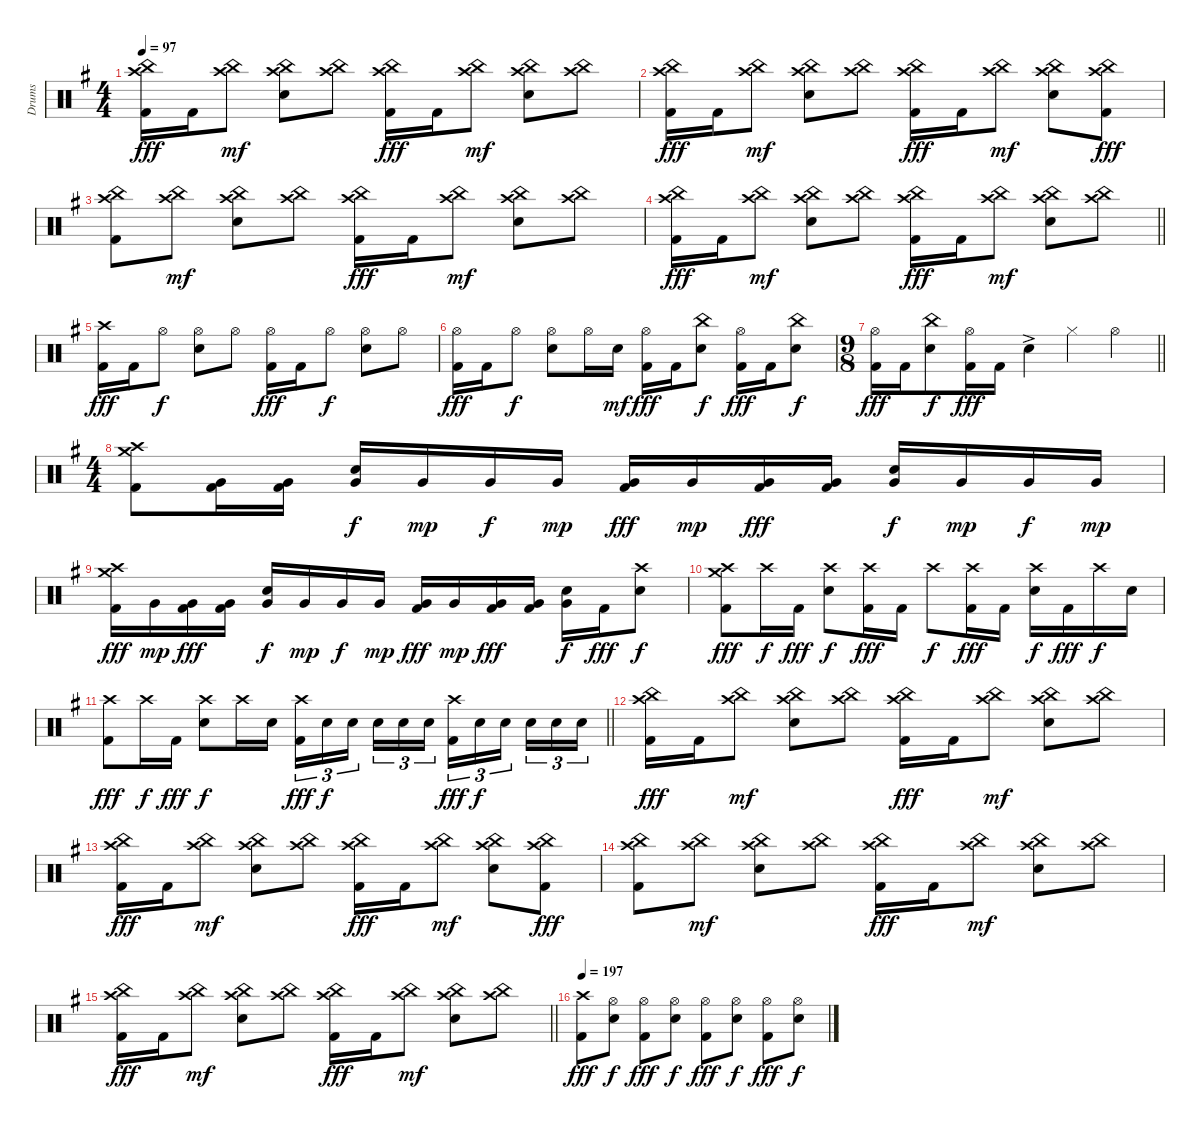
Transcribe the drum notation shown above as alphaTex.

\track ("Drums" "Drums") {instrument percussion}
\staff {score}
\articulation defaults
\ts (4 4)
\tempo 97
\clef neutral
\ks eminor
("Crash high (hit)" "China (hit)" "Kick (hit) 2").16{dy fff} "Kick (hit) 2".16 ("Crash high (hit)" "China (hit)").8{dy mf} ("Crash high (hit)" "China (hit)" "Snare (hit) 2").8 ("Crash high (hit)" "China (hit)").8 ("Crash high (hit)" "China (hit)" "Kick (hit) 2").16{dy fff} "Kick (hit) 2".16 ("Crash high (hit)" "China (hit)").8{dy mf} ("Crash high (hit)" "China (hit)" "Snare (hit) 2").8 ("Crash high (hit)" "China (hit)").8 |
("Crash high (hit)" "China (hit)" "Kick (hit) 2").16{dy fff} "Kick (hit) 2".16 ("Crash high (hit)" "China (hit)").8{dy mf} ("Crash high (hit)" "China (hit)" "Snare (hit) 2").8 ("Crash high (hit)" "China (hit)").8 ("Crash high (hit)" "China (hit)" "Kick (hit) 2").16{dy fff} "Kick (hit) 2".16 ("Crash high (hit)" "China (hit)").8{dy mf} ("Crash high (hit)" "China (hit)" "Snare (hit) 2").8 ("Crash high (hit)" "China (hit)" "Kick (hit) 2").8{dy fff} |
("Crash high (hit)" "China (hit)" "Kick (hit) 2").8 ("Crash high (hit)" "China (hit)").8{dy mf} ("Crash high (hit)" "China (hit)" "Snare (hit) 2").8 ("Crash high (hit)" "China (hit)").8 ("Crash high (hit)" "China (hit)" "Kick (hit) 2").16{dy fff} "Kick (hit) 2".16 ("Crash high (hit)" "China (hit)").8{dy mf} ("Crash high (hit)" "China (hit)" "Snare (hit) 2").8 ("Crash high (hit)" "China (hit)").8 |
\barLineRight lightlight
("Crash high (hit)" "China (hit)" "Kick (hit) 2").16{dy fff} "Kick (hit) 2".16 ("Crash high (hit)" "China (hit)").8{dy mf} ("Crash high (hit)" "China (hit)" "Snare (hit) 2").8 ("Crash high (hit)" "China (hit)").8 ("Crash high (hit)" "China (hit)" "Kick (hit) 2").16{dy fff} "Kick (hit) 2".16 ("Crash high (hit)" "China (hit)").8{dy mf} ("Crash high (hit)" "China (hit)" "Snare (hit) 2").8 ("Crash high (hit)" "China (hit)").8 |
("Crash high (hit)" "Kick (hit) 2").16{dy fff} "Kick (hit) 2".16 "Hi-Hat (open)".8{dy f} ("Hi-Hat (open)" "Snare (hit) 2").8 "Hi-Hat (open)".8 ("Hi-Hat (open)" "Kick (hit) 2").16{dy fff} "Kick (hit) 2".16 "Hi-Hat (open)".8{dy f} ("Hi-Hat (open)" "Snare (hit) 2").8 "Hi-Hat (open)".8 |
("Hi-Hat (open)" "Kick (hit) 2").16{dy fff} "Kick (hit) 2".16 "Hi-Hat (open)".8{dy f} ("Hi-Hat (open)" "Snare (hit) 2").8 "Hi-Hat (open)".16 "Snare (hit) 2".16{dy mf} ("Hi-Hat (open)" "Kick (hit) 2").16{dy fff} "Kick (hit) 2".16 ("China (hit)" "Snare (hit) 2").8{dy f} ("Hi-Hat (open)" "Kick (hit) 2").16{dy fff} "Kick (hit) 2".16 ("China (hit)" "Snare (hit) 2").8{dy f} |
\ts (9 8)
\barLineRight lightlight
("Hi-Hat (open)" "Kick (hit) 2").16{dy fff} "Kick (hit) 2".16 ("China (hit)" "Snare (hit) 2").8{dy f} ("Hi-Hat (open)" "Kick (hit) 2").16{dy fff} "Kick (hit) 2".16 "Snare (hit) 2"{ac}.4 "Hi-Hat (closed)".4 "Hi-Hat (open)".4 |
\ts (4 4)
("Crash high (hit)" "Crash medium (hit)" "Kick (hit) 2").8 ("Very Low Tom (hit)" "Kick (hit) 2").16 ("Very Low Tom (hit)" "Kick (hit) 2").16 ("Snare (hit) 2" "Very Low Tom (hit)").16{dy f} "Very Low Tom (hit)".16{dy mp} "Very Low Tom (hit)".16{dy f} "Very Low Tom (hit)".16{dy mp} ("Very Low Tom (hit)" "Kick (hit) 2").16{dy fff} "Very Low Tom (hit)".16{dy mp} ("Very Low Tom (hit)" "Kick (hit) 2").16{dy fff} ("Very Low Tom (hit)" "Kick (hit) 2").16 ("Snare (hit) 2" "Very Low Tom (hit)").16{dy f} "Very Low Tom (hit)".16{dy mp} "Very Low Tom (hit)".16{dy f} "Very Low Tom (hit)".16{dy mp} |
("Crash high (hit)" "Crash medium (hit)" "Kick (hit) 2").16{dy fff} "Very Low Tom (hit)".16{dy mp} ("Very Low Tom (hit)" "Kick (hit) 2").16{dy fff} ("Very Low Tom (hit)" "Kick (hit) 2").16 ("Snare (hit) 2" "Very Low Tom (hit)").16{dy f} "Very Low Tom (hit)".16{dy mp} "Very Low Tom (hit)".16{dy f} "Very Low Tom (hit)".16{dy mp} ("Very Low Tom (hit)" "Kick (hit) 2").16{dy fff} "Very Low Tom (hit)".16{dy mp} ("Very Low Tom (hit)" "Kick (hit) 2").16{dy fff} ("Very Low Tom (hit)" "Kick (hit) 2").16 ("Snare (hit) 2" "Very Low Tom (hit)").16{dy f} "Kick (hit) 2".16{dy fff} ("Crash high (hit)" "Snare (hit) 2").8{dy f} |
("Crash high (hit)" "Crash medium (hit)" "Kick (hit) 2").8{dy fff} "Crash high (hit)".16{dy f} "Kick (hit) 2".16{dy fff} ("Crash high (hit)" "Snare (hit) 2").8{dy f} ("Crash high (hit)" "Kick (hit) 2").16{dy fff} "Kick (hit) 2".16 "Crash high (hit)".8{dy f} ("Crash high (hit)" "Kick (hit) 2").16{dy fff} "Kick (hit) 2".16 ("Crash high (hit)" "Snare (hit) 2").16{dy f} "Kick (hit) 2".16{dy fff} "Crash high (hit)".16{dy f} "Snare (hit) 2".16 |
\barLineRight lightlight
("Crash high (hit)" "Kick (hit) 2").8{dy fff} "Crash high (hit)".16{dy f} "Kick (hit) 2".16{dy fff} ("Crash high (hit)" "Snare (hit) 2").8{dy f} "Crash high (hit)".16 "Snare (hit) 2".16 ("Crash high (hit)" "Kick (hit) 2").16{tu (3 2) dy fff} "Snare (hit) 2".16{tu (3 2) dy f} "Snare (hit) 2".16{tu (3 2)} "Snare (hit) 2".16{tu (3 2)} "Snare (hit) 2".16{tu (3 2)} "Snare (hit) 2".16{tu (3 2)} ("Crash high (hit)" "Kick (hit) 2").16{tu (3 2) dy fff} "Snare (hit) 2".16{tu (3 2) dy f} "Snare (hit) 2".16{tu (3 2)} "Snare (hit) 2".16{tu (3 2)} "Snare (hit) 2".16{tu (3 2)} "Snare (hit) 2".16{tu (3 2)} |
("Crash high (hit)" "China (hit)" "Kick (hit) 2").16{dy fff} "Kick (hit) 2".16 ("Crash high (hit)" "China (hit)").8{dy mf} ("Crash high (hit)" "China (hit)" "Snare (hit) 2").8 ("Crash high (hit)" "China (hit)").8 ("Crash high (hit)" "China (hit)" "Kick (hit) 2").16{dy fff} "Kick (hit) 2".16 ("Crash high (hit)" "China (hit)").8{dy mf} ("Crash high (hit)" "China (hit)" "Snare (hit) 2").8 ("Crash high (hit)" "China (hit)").8 |
("Crash high (hit)" "China (hit)" "Kick (hit) 2").16{dy fff} "Kick (hit) 2".16 ("Crash high (hit)" "China (hit)").8{dy mf} ("Crash high (hit)" "China (hit)" "Snare (hit) 2").8 ("Crash high (hit)" "China (hit)").8 ("Crash high (hit)" "China (hit)" "Kick (hit) 2").16{dy fff} "Kick (hit) 2".16 ("Crash high (hit)" "China (hit)").8{dy mf} ("Crash high (hit)" "China (hit)" "Snare (hit) 2").8 ("Crash high (hit)" "China (hit)" "Kick (hit) 2").8{dy fff} |
("Crash high (hit)" "China (hit)" "Kick (hit) 2").8 ("Crash high (hit)" "China (hit)").8{dy mf} ("Crash high (hit)" "China (hit)" "Snare (hit) 2").8 ("Crash high (hit)" "China (hit)").8 ("Crash high (hit)" "China (hit)" "Kick (hit) 2").16{dy fff} "Kick (hit) 2".16 ("Crash high (hit)" "China (hit)").8{dy mf} ("Crash high (hit)" "China (hit)" "Snare (hit) 2").8 ("Crash high (hit)" "China (hit)").8 |
\barLineRight lightlight
("Crash high (hit)" "China (hit)" "Kick (hit) 2").16{dy fff} "Kick (hit) 2".16 ("Crash high (hit)" "China (hit)").8{dy mf} ("Crash high (hit)" "China (hit)" "Snare (hit) 2").8 ("Crash high (hit)" "China (hit)").8 ("Crash high (hit)" "China (hit)" "Kick (hit) 2").16{dy fff} "Kick (hit) 2".16 ("Crash high (hit)" "China (hit)").8{dy mf} ("Crash high (hit)" "China (hit)" "Snare (hit) 2").8 ("Crash high (hit)" "China (hit)").8 |
\tempo 197
("Crash high (hit)" "Kick (hit) 2").8{dy fff} ("Hi-Hat (open)" "Snare (hit) 2").8{dy f} ("Hi-Hat (open)" "Kick (hit) 2").8{dy fff} ("Hi-Hat (open)" "Snare (hit) 2").8{dy f} ("Hi-Hat (open)" "Kick (hit) 2").8{dy fff} ("Hi-Hat (open)" "Snare (hit) 2").8{dy f} ("Hi-Hat (open)" "Kick (hit) 2").8{dy fff} ("Hi-Hat (open)" "Snare (hit) 2").8{dy f}
